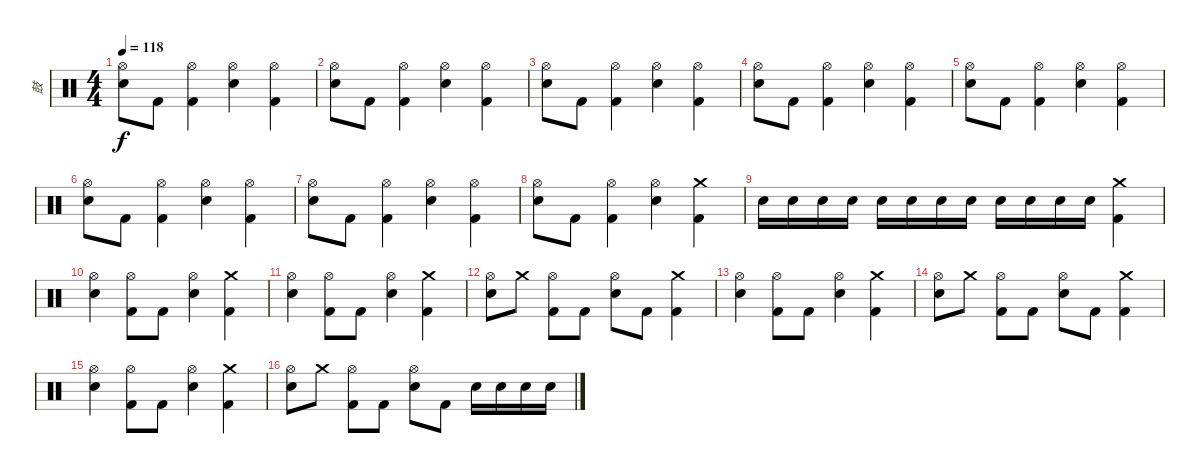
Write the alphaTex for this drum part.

\track ("鼓" "鼓") {instrument percussion}
\staff {score}
\articulation defaults
\ts (4 4)
\tempo 118
\clef neutral
\ks c
("Hi-Hat (open)" "Electric Snare (hit)").8{dy f} "Kick (hit) 2".8 ("Hi-Hat (open)" "Kick (hit) 2").4 ("Hi-Hat (open)" "Electric Snare (hit)").4 ("Hi-Hat (open)" "Kick (hit) 2").4 |
("Hi-Hat (open)" "Electric Snare (hit)").8 "Kick (hit) 2".8 ("Hi-Hat (open)" "Kick (hit) 2").4 ("Hi-Hat (open)" "Electric Snare (hit)").4 ("Hi-Hat (open)" "Kick (hit) 2").4 |
("Hi-Hat (open)" "Electric Snare (hit)").8 "Kick (hit) 2".8 ("Hi-Hat (open)" "Kick (hit) 2").4 ("Hi-Hat (open)" "Electric Snare (hit)").4 ("Hi-Hat (open)" "Kick (hit) 2").4 |
("Hi-Hat (open)" "Electric Snare (hit)").8 "Kick (hit) 2".8 ("Hi-Hat (open)" "Kick (hit) 2").4 ("Hi-Hat (open)" "Electric Snare (hit)").4 ("Hi-Hat (open)" "Kick (hit) 2").4 |
("Hi-Hat (open)" "Electric Snare (hit)").8 "Kick (hit) 2".8 ("Hi-Hat (open)" "Kick (hit) 2").4 ("Hi-Hat (open)" "Electric Snare (hit)").4 ("Hi-Hat (open)" "Kick (hit) 2").4 |
("Hi-Hat (open)" "Electric Snare (hit)").8 "Kick (hit) 2".8 ("Hi-Hat (open)" "Kick (hit) 2").4 ("Hi-Hat (open)" "Electric Snare (hit)").4 ("Hi-Hat (open)" "Kick (hit) 2").4 |
("Hi-Hat (open)" "Electric Snare (hit)").8 "Kick (hit) 2".8 ("Hi-Hat (open)" "Kick (hit) 2").4 ("Hi-Hat (open)" "Electric Snare (hit)").4 ("Hi-Hat (open)" "Kick (hit) 2").4 |
("Hi-Hat (open)" "Electric Snare (hit)").8 "Kick (hit) 2".8 ("Hi-Hat (open)" "Kick (hit) 2").4 ("Hi-Hat (open)" "Electric Snare (hit)").4 ("Crash medium (hit)" "Kick (hit) 2").4 |
"Electric Snare (hit)".16 "Electric Snare (hit)".16 "Electric Snare (hit)".16 "Electric Snare (hit)".16 "Electric Snare (hit)".16 "Electric Snare (hit)".16 "Electric Snare (hit)".16 "Electric Snare (hit)".16 "Electric Snare (hit)".16 "Electric Snare (hit)".16 "Electric Snare (hit)".16 "Electric Snare (hit)".16 ("Crash medium (hit)" "Kick (hit) 2").4 |
("Hi-Hat (open)" "Electric Snare (hit)").4 ("Hi-Hat (open)" "Kick (hit) 2").8 "Kick (hit) 2".8 ("Hi-Hat (open)" "Electric Snare (hit)").4 ("Crash medium (hit)" "Kick (hit) 2").4 |
("Hi-Hat (open)" "Electric Snare (hit)").4 ("Hi-Hat (open)" "Kick (hit) 2").8 "Kick (hit) 2".8 ("Hi-Hat (open)" "Electric Snare (hit)").4 ("Crash medium (hit)" "Kick (hit) 2").4 |
("Hi-Hat (open)" "Electric Snare (hit)").8 "Crash medium (hit)".8 ("Hi-Hat (open)" "Kick (hit) 2").8 "Kick (hit) 2".8 ("Hi-Hat (open)" "Electric Snare (hit)").8 "Kick (hit) 2".8 ("Crash medium (hit)" "Kick (hit) 2").4 |
("Hi-Hat (open)" "Electric Snare (hit)").4 ("Hi-Hat (open)" "Kick (hit) 2").8 "Kick (hit) 2".8 ("Hi-Hat (open)" "Electric Snare (hit)").4 ("Crash medium (hit)" "Kick (hit) 2").4 |
("Hi-Hat (open)" "Electric Snare (hit)").8 "Crash medium (hit)".8 ("Hi-Hat (open)" "Kick (hit) 2").8 "Kick (hit) 2".8 ("Hi-Hat (open)" "Electric Snare (hit)").8 "Kick (hit) 2".8 ("Crash medium (hit)" "Kick (hit) 2").4 |
("Hi-Hat (open)" "Electric Snare (hit)").4 ("Hi-Hat (open)" "Kick (hit) 2").8 "Kick (hit) 2".8 ("Hi-Hat (open)" "Electric Snare (hit)").4 ("Crash medium (hit)" "Kick (hit) 2").4 |
("Hi-Hat (open)" "Electric Snare (hit)").8 "Crash medium (hit)".8 ("Hi-Hat (open)" "Kick (hit) 2").8 "Kick (hit) 2".8 ("Hi-Hat (open)" "Electric Snare (hit)").8 "Kick (hit) 2".8 "Electric Snare (hit)".16 "Electric Snare (hit)".16 "Electric Snare (hit)".16 "Electric Snare (hit)".16
